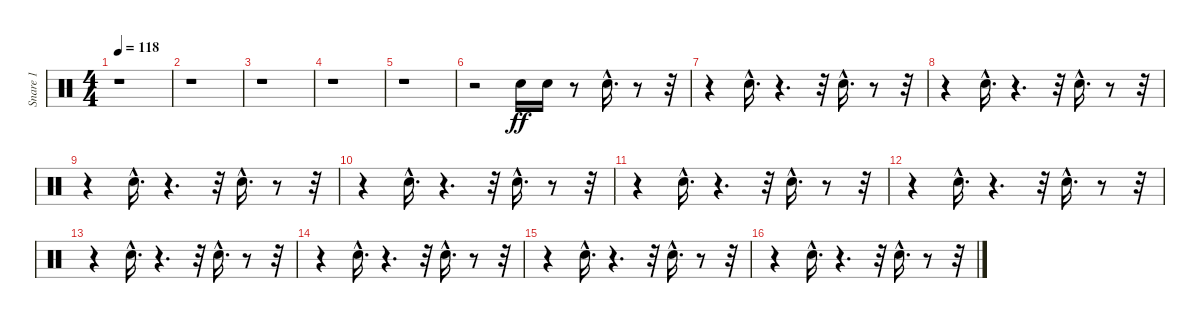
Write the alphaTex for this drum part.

\track ("Snare 1             " "Snare 1   ") {instrument percussion}
\staff {score}
\articulation defaults
\ts (4 4)
\tempo 118
\clef neutral
\ks c
r.1{dy ff} |
r.1 |
r.1 |
r.1 |
r.1 |
r.2 "Snare (hit) 2".16 "Snare (hit) 2".16 r.8 "Snare (hit) 2"{hac}.16{d} r.8 r.32 |
r.4 "Snare (hit) 2"{hac}.16{d} r.4{d} r.32 "Snare (hit) 2"{hac}.16{d} r.8 r.32 |
r.4 "Snare (hit) 2"{hac}.16{d} r.4{d} r.32 "Snare (hit) 2"{hac}.16{d} r.8 r.32 |
r.4 "Snare (hit) 2"{hac}.16{d} r.4{d} r.32 "Snare (hit) 2"{hac}.16{d} r.8 r.32 |
r.4 "Snare (hit) 2"{hac}.16{d} r.4{d} r.32 "Snare (hit) 2"{hac}.16{d} r.8 r.32 |
r.4 "Snare (hit) 2"{hac}.16{d} r.4{d} r.32 "Snare (hit) 2"{hac}.16{d} r.8 r.32 |
r.4 "Snare (hit) 2"{hac}.16{d} r.4{d} r.32 "Snare (hit) 2"{hac}.16{d} r.8 r.32 |
r.4 "Snare (hit) 2"{hac}.16{d} r.4{d} r.32 "Snare (hit) 2"{hac}.16{d} r.8 r.32 |
r.4 "Snare (hit) 2"{hac}.16{d} r.4{d} r.32 "Snare (hit) 2"{hac}.16{d} r.8 r.32 |
r.4 "Snare (hit) 2"{hac}.16{d} r.4{d} r.32 "Snare (hit) 2"{hac}.16{d} r.8 r.32 |
r.4 "Snare (hit) 2"{hac}.16{d} r.4{d} r.32 "Snare (hit) 2"{hac}.16{d} r.8 r.32
